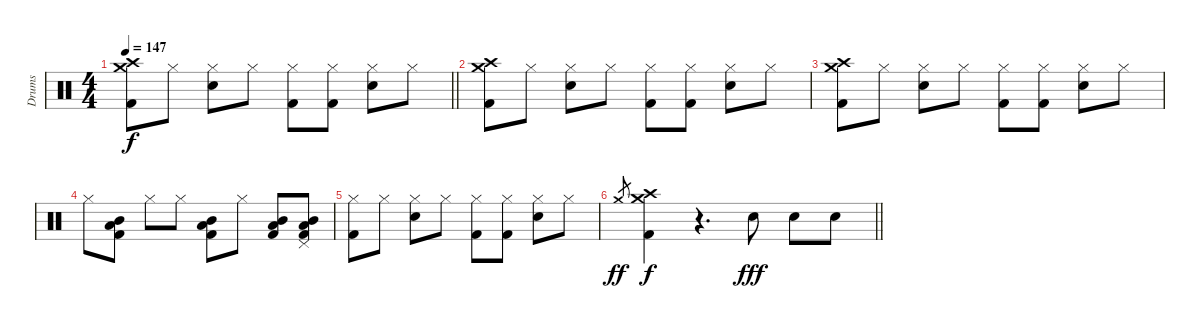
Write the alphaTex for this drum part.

\track ("Drums" "Drums") {instrument percussion}
\staff {score}
\articulation defaults
\ts (4 4)
\tempo 147
\clef neutral
\barLineRight lightlight
\ks c
("Crash medium (hit)" "Crash high (hit)" "Kick (hit) 2").8{dy f} "Hi-Hat (closed)".8 ("Hi-Hat (closed)" "Electric Snare (hit)").8 "Hi-Hat (closed)".8 ("Hi-Hat (closed)" "Kick (hit) 2").8 ("Hi-Hat (closed)" "Kick (hit) 2").8 ("Hi-Hat (closed)" "Electric Snare (hit)").8 "Hi-Hat (closed)".8 |
("Crash medium (hit)" "Crash high (hit)" "Kick (hit) 2").8 "Hi-Hat (closed)".8 ("Hi-Hat (closed)" "Electric Snare (hit)").8 "Hi-Hat (closed)".8 ("Hi-Hat (closed)" "Kick (hit) 2").8 ("Hi-Hat (closed)" "Kick (hit) 2").8 ("Hi-Hat (closed)" "Electric Snare (hit)").8 "Hi-Hat (closed)".8 |
("Crash medium (hit)" "Crash high (hit)" "Kick (hit) 2").8 "Hi-Hat (closed)".8 ("Hi-Hat (closed)" "Electric Snare (hit)").8 "Hi-Hat (closed)".8 ("Hi-Hat (closed)" "Kick (hit) 2").8 ("Hi-Hat (closed)" "Kick (hit) 2").8 ("Hi-Hat (closed)" "Electric Snare (hit)").8 "Hi-Hat (closed)".8 |
"Hi-Hat (closed)".8 ("Low Tom (hit)" "Mid Tom (hit)" "Kick (hit) 2").8{volume 16} "Hi-Hat (closed)".8 "Hi-Hat (closed)".8 ("Mid Tom (hit)" "Low Tom (hit)" "Kick (hit) 2").8 "Hi-Hat (closed)".8 ("Low Tom (hit)" "Mid Tom (hit)" "Kick (hit) 2").8 ("Pedal Hi-Hat (hit)" "Low Tom (hit)" "Mid Tom (hit)" "Kick (hit) 2").8 |
("Hi-Hat (closed)" "Kick (hit) 2").8{volume 11} "Hi-Hat (closed)".8 ("Hi-Hat (closed)" "Electric Snare (hit)").8 "Hi-Hat (closed)".8 ("Hi-Hat (closed)" "Kick (hit) 2").8 ("Hi-Hat (closed)" "Kick (hit) 2").8 ("Hi-Hat (closed)" "Electric Snare (hit)").8 "Hi-Hat (closed)".8 |
\barLineRight lightlight "Crash medium (hit)"{h}.8{gr dy ff}
("Crash high (hit)" "Crash medium (hit)" "Kick (hit) 2").4{dy f} r.4{d} "Electric Snare (hit)".8{dy fff} "Electric Snare (hit)".8 "Electric Snare (hit)".8
